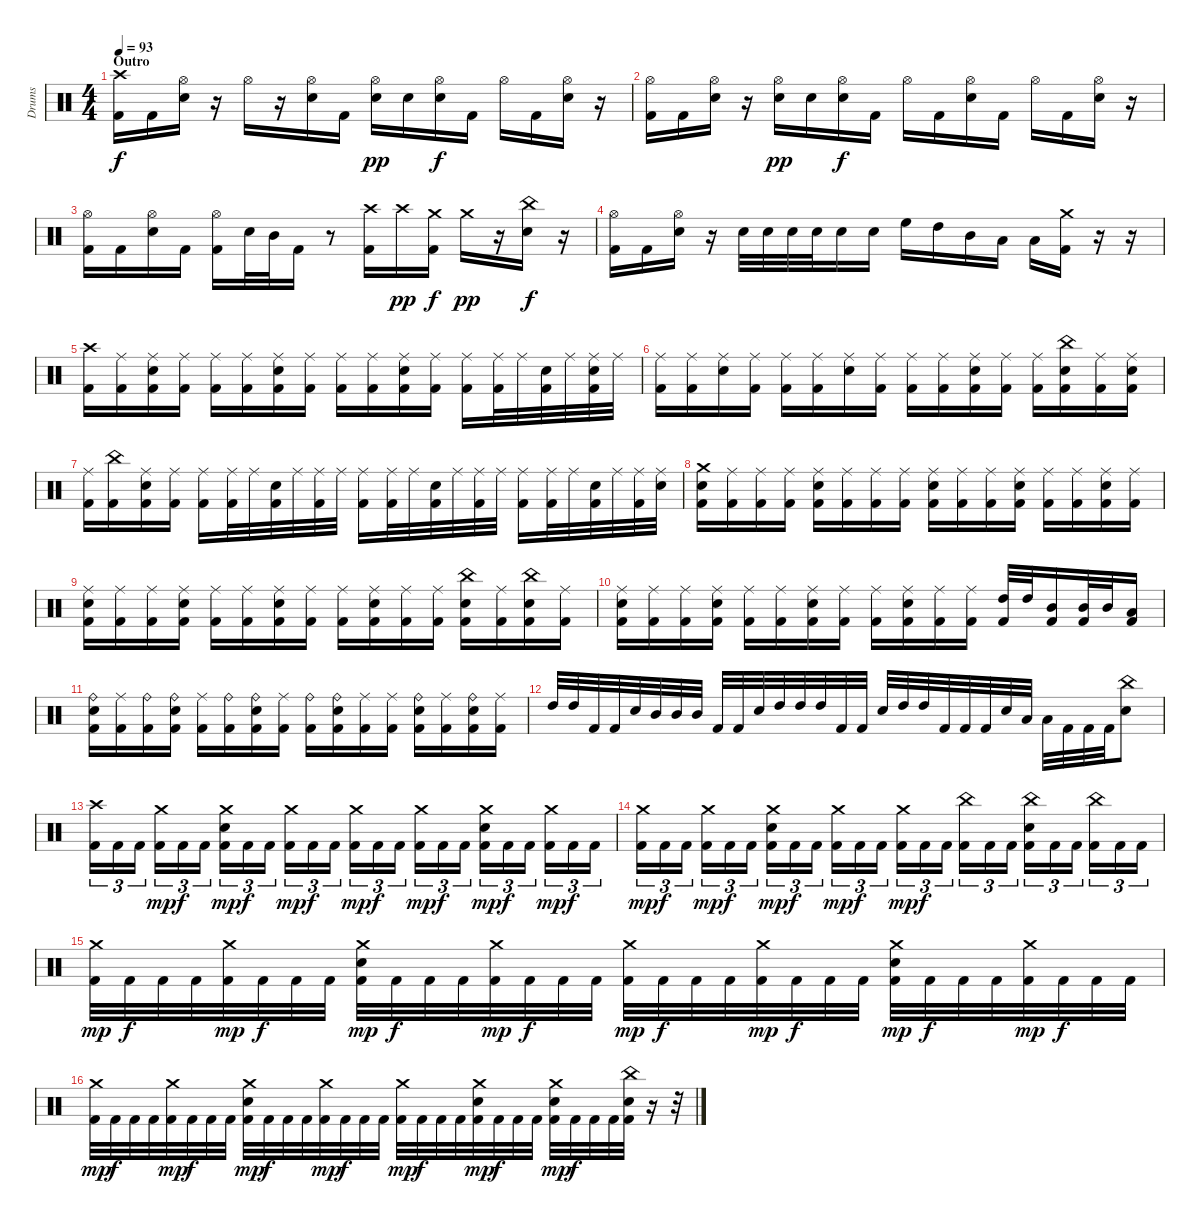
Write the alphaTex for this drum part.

\track ("Drums" "Drums") {instrument percussion}
\staff {score}
\articulation defaults
\ts (4 4)
\section ("" "Outro")
\tempo 93
\clef neutral
\ks c
("Kick (hit) 2" "Crash high (hit)").16{dy f} "Kick (hit) 2".16 ("Snare (hit) 2" "Hi-Hat (open)").16 r.16 "Hi-Hat (open)".16 r.16 ("Snare (hit) 2" "Hi-Hat (open)").16 "Kick (hit) 2".16 ("Hi-Hat (open)" "Snare (hit) 2").16{dy pp} "Snare (hit) 2".16 ("Hi-Hat (open)" "Snare (hit) 2").16{dy f} "Kick (hit) 2".16 "Hi-Hat (open)".16 "Kick (hit) 2".16 ("Hi-Hat (open)" "Snare (hit) 2").16 r.16 |
("Kick (hit) 2" "Hi-Hat (open)").16 "Kick (hit) 2".16 ("Snare (hit) 2" "Hi-Hat (open)").16 r.16 ("Hi-Hat (open)" "Snare (hit) 2").16{dy pp} "Snare (hit) 2".16 ("Snare (hit) 2" "Hi-Hat (open)").16{dy f} "Kick (hit) 2".16 "Hi-Hat (open)".16 "Kick (hit) 2".16 ("Hi-Hat (open)" "Snare (hit) 2").16 "Kick (hit) 2".16 "Hi-Hat (open)".16 "Kick (hit) 2".16 ("Hi-Hat (open)" "Snare (hit) 2").16 r.16 |
("Kick (hit) 2" "Hi-Hat (open)").16 "Kick (hit) 2".16 ("Snare (hit) 2" "Hi-Hat (open)").16 "Kick (hit) 2".16 ("Kick (hit) 2" "Hi-Hat (open)").16 "Snare (hit) 2".32 "Mid Tom (hit)".32 "Kick (hit) 2".16 r.8 ("Kick (hit) 2" "Crash high (hit)").16 "Crash high (hit)".16{dy pp} ("Kick (hit) 2" "Crash medium (hit)").16{dy f} "Crash medium (hit)".16{dy pp} r.16 ("China (hit)" "Snare (hit) 2").16{dy f} r.16 |
("Kick (hit) 2" "Hi-Hat (open)").16 "Kick (hit) 2".16 ("Snare (hit) 2" "Hi-Hat (open)").16 r.16 "Snare (hit) 2".32 "Snare (hit) 2".32 "Snare (hit) 2".32 "Snare (hit) 2".32 "Snare (hit) 2".16 "Snare (hit) 2".16 "High Floor Tom (hit)".16 "High Tom (hit)".16 "Mid Tom (hit)".16 "Low Tom (hit)".16 "Low Tom (hit)".16 ("Kick (hit) 2" "Crash medium (hit)").16 r.16 r.16 |
("Kick (hit) 2" "Crash high (hit)").16 ("Kick (hit) 2" "Ride (middle)").16 ("Kick (hit) 2" "Ride (middle)" "Snare (hit) 2").16 ("Kick (hit) 2" "Ride (middle)").16 ("Kick (hit) 2" "Ride (middle)").16 ("Kick (hit) 2" "Ride (middle)").16 ("Kick (hit) 2" "Ride (middle)" "Snare (hit) 2").16 ("Kick (hit) 2" "Ride (middle)").16 ("Kick (hit) 2" "Ride (middle)").16 ("Kick (hit) 2" "Ride (middle)").16 ("Kick (hit) 2" "Ride (middle)" "Snare (hit) 2").16 ("Kick (hit) 2" "Ride (middle)").16 ("Kick (hit) 2" "Ride (middle)").16 ("Kick (hit) 2" "Ride (middle)").32 "Ride (middle)".32 ("Kick (hit) 2" "Snare (hit) 2").32 "Ride (middle)".32 ("Ride (middle)" "Snare (hit) 2" "Kick (hit) 2").32 "Ride (middle)".32 |
("Kick (hit) 2" "Ride (middle)").16 ("Kick (hit) 2" "Ride (middle)").16 ("Snare (hit) 2" "Ride (middle)").16 ("Kick (hit) 2" "Ride (middle)").16 ("Kick (hit) 2" "Ride (middle)").16 ("Kick (hit) 2" "Ride (middle)").16 ("Snare (hit) 2" "Ride (middle)").16 ("Kick (hit) 2" "Ride (middle)").16 ("Kick (hit) 2" "Ride (middle)").16 ("Kick (hit) 2" "Ride (middle)").16 ("Kick (hit) 2" "Ride (middle)" "Snare (hit) 2").16 ("Kick (hit) 2" "Ride (middle)").16 ("Kick (hit) 2" "Ride (middle)").16 ("Kick (hit) 2" "China (hit)" "Snare (hit) 2").16 ("Kick (hit) 2" "Ride (middle)").16 ("Snare (hit) 2" "Ride (middle)" "Kick (hit) 2").16 |
("Kick (hit) 2" "Ride (middle)").16 ("Kick (hit) 2" "China (hit)").16 ("Snare (hit) 2" "Ride (middle)" "Kick (hit) 2").16 ("Kick (hit) 2" "Ride (middle)").16 ("Kick (hit) 2" "Ride (middle)").16 ("Kick (hit) 2" "Ride (middle)").32 "Ride (middle)".32 ("Kick (hit) 2" "Snare (hit) 2").32 "Ride (middle)".32 ("Ride (middle)" "Kick (hit) 2").32 "Ride (middle)".32 ("Kick (hit) 2" "Ride (middle)").16 ("Kick (hit) 2" "Ride (middle)").32 "Ride (middle)".32 ("Kick (hit) 2" "Snare (hit) 2").32 "Ride (middle)".32 ("Ride (middle)" "Kick (hit) 2").32 "Ride (middle)".32 ("Kick (hit) 2" "Ride (middle)").16 ("Kick (hit) 2" "Ride (middle)").32 "Ride (middle)".32 ("Kick (hit) 2" "Snare (hit) 2").32 "Ride (middle)".32 ("Ride (middle)" "Kick (hit) 2").32 ("Ride (middle)" "Snare (hit) 2").32 |
("Snare (hit) 2" "Crash medium (hit)" "Kick (hit) 2").16 ("Kick (hit) 2" "Ride (middle)").16 ("Kick (hit) 2" "Ride (middle)").16 ("Ride (middle)" "Kick (hit) 2").16 ("Kick (hit) 2" "Ride (middle)" "Snare (hit) 2").16 ("Kick (hit) 2" "Ride (middle)").16 ("Ride (middle)" "Kick (hit) 2").16 ("Kick (hit) 2" "Ride (middle)").16 ("Kick (hit) 2" "Ride (middle)" "Snare (hit) 2").16 ("Ride (middle)" "Kick (hit) 2").16 ("Kick (hit) 2" "Ride (middle)").16 ("Kick (hit) 2" "Ride (middle)" "Snare (hit) 2").16 ("Ride (middle)" "Kick (hit) 2").16 ("Kick (hit) 2" "Ride (middle)").16 ("Snare (hit) 2" "Ride (middle)" "Kick (hit) 2").16 ("Ride (middle)" "Kick (hit) 2").16 |
("Snare (hit) 2" "Ride (middle)" "Kick (hit) 2").16 ("Kick (hit) 2" "Ride (middle)").16 ("Ride (middle)" "Kick (hit) 2").16 ("Ride (middle)" "Kick (hit) 2" "Snare (hit) 2").16 ("Kick (hit) 2" "Ride (middle)").16 ("Ride (middle)" "Kick (hit) 2").16 ("Ride (middle)" "Kick (hit) 2" "Snare (hit) 2").16 ("Kick (hit) 2" "Ride (middle)").16 ("Ride (middle)" "Kick (hit) 2").16 ("Ride (middle)" "Kick (hit) 2" "Snare (hit) 2").16 ("Kick (hit) 2" "Ride (middle)").16 ("Ride (middle)" "Kick (hit) 2").16 ("China (hit)" "Kick (hit) 2" "Snare (hit) 2").16 ("Kick (hit) 2" "Ride (middle)").16 ("Snare (hit) 2" "China (hit)" "Kick (hit) 2").16 ("Ride (middle)" "Kick (hit) 2").16 |
("Snare (hit) 2" "Ride (middle)" "Kick (hit) 2").16 ("Kick (hit) 2" "Ride (middle)").16 ("Ride (middle)" "Kick (hit) 2").16 ("Ride (middle)" "Kick (hit) 2" "Snare (hit) 2").16 ("Kick (hit) 2" "Ride (middle)").16 ("Ride (middle)" "Kick (hit) 2").16 ("Ride (middle)" "Kick (hit) 2" "Snare (hit) 2").16 ("Kick (hit) 2" "Ride (middle)").16 ("Ride (middle)" "Kick (hit) 2").16 ("Ride (middle)" "Kick (hit) 2" "Snare (hit) 2").16 ("Kick (hit) 2" "Ride (middle)").16 ("Ride (middle)" "Kick (hit) 2").16 ("High Tom (hit)" "Kick (hit) 2").32 "High Tom (hit)".32 ("Kick (hit) 2" "Mid Tom (hit)").16 ("Mid Tom (hit)" "Kick (hit) 2").32 "Mid Tom (hit)".32 ("Kick (hit) 2" "Low Tom (hit)").16 |
("Snare (hit) 2" "Ride (bell)" "Kick (hit) 2").16 ("Kick (hit) 2" "Ride (middle)").16 ("Ride (bell)" "Kick (hit) 2").16 ("Ride (bell)" "Kick (hit) 2" "Snare (hit) 2").16 ("Kick (hit) 2" "Ride (middle)").16 ("Ride (bell)" "Kick (hit) 2").16 ("Ride (bell)" "Kick (hit) 2" "Snare (hit) 2").16 ("Kick (hit) 2" "Ride (middle)").16 ("Ride (bell)" "Kick (hit) 2").16 ("Ride (bell)" "Kick (hit) 2" "Snare (hit) 2").16 ("Kick (hit) 2" "Ride (middle)").16 ("Ride (middle)" "Kick (hit) 2").16 ("Ride (bell)" "Kick (hit) 2" "Snare (hit) 2").16 ("Kick (hit) 2" "Ride (middle)").16 ("Snare (hit) 2" "Ride (bell)" "Kick (hit) 2").16 ("Ride (middle)" "Kick (hit) 2").16 |
"High Tom (hit)".32 "High Tom (hit)".32 "Kick (hit) 2".32 "Kick (hit) 2".32 "Snare (hit) 2".32 "Mid Tom (hit)".32 "Mid Tom (hit)".32 "Mid Tom (hit)".32 "Kick (hit) 2".32 "Kick (hit) 2".32 "Snare (hit) 2".32 "High Tom (hit)".32 "High Tom (hit)".32 "High Tom (hit)".32 "Kick (hit) 2".32 "Kick (hit) 2".32 "Snare (hit) 2".32 "High Tom (hit)".32 "High Tom (hit)".32 "Kick (hit) 2".32 "Kick (hit) 2".32 "Kick (hit) 2".32 "Snare (hit) 2".32 "Low Tom (hit)".32 "Low Tom (hit)".32 "Kick (hit) 2".32 "Kick (hit) 2".32 "Kick (hit) 2".32 ("Snare (hit) 2" "China (hit)").8 |
("Kick (hit) 2" "Crash high (hit)").16{tu (3 2)} "Kick (hit) 2".16{tu (3 2)} "Kick (hit) 2".16{tu (3 2) beam splitsecondary} ("Kick (hit) 2" "Crash medium (hit)").16{tu (3 2) dy mp} "Kick (hit) 2".16{tu (3 2) dy f} "Kick (hit) 2".16{tu (3 2)} ("Kick (hit) 2" "Crash medium (hit)" "Snare (hit) 2").16{tu (3 2) dy mp} "Kick (hit) 2".16{tu (3 2) dy f} "Kick (hit) 2".16{tu (3 2) beam splitsecondary} ("Kick (hit) 2" "Crash medium (hit)").16{tu (3 2) dy mp} "Kick (hit) 2".16{tu (3 2) dy f} "Kick (hit) 2".16{tu (3 2)} ("Kick (hit) 2" "Crash medium (hit)").16{tu (3 2) dy mp} "Kick (hit) 2".16{tu (3 2) dy f} "Kick (hit) 2".16{tu (3 2) beam splitsecondary} ("Kick (hit) 2" "Crash medium (hit)").16{tu (3 2) dy mp} "Kick (hit) 2".16{tu (3 2) dy f} "Kick (hit) 2".16{tu (3 2)} ("Kick (hit) 2" "Crash medium (hit)" "Snare (hit) 2").16{tu (3 2) dy mp} "Kick (hit) 2".16{tu (3 2) dy f} "Kick (hit) 2".16{tu (3 2) beam splitsecondary} ("Kick (hit) 2" "Crash medium (hit)").16{tu (3 2) dy mp} "Kick (hit) 2".16{tu (3 2) dy f} "Kick (hit) 2".16{tu (3 2)} |
("Kick (hit) 2" "Crash medium (hit)").16{tu (3 2) dy mp} "Kick (hit) 2".16{tu (3 2) dy f} "Kick (hit) 2".16{tu (3 2) beam splitsecondary} ("Kick (hit) 2" "Crash medium (hit)").16{tu (3 2) dy mp} "Kick (hit) 2".16{tu (3 2) dy f} "Kick (hit) 2".16{tu (3 2)} ("Kick (hit) 2" "Crash medium (hit)" "Snare (hit) 2").16{tu (3 2) dy mp} "Kick (hit) 2".16{tu (3 2) dy f} "Kick (hit) 2".16{tu (3 2) beam splitsecondary} ("Kick (hit) 2" "Crash medium (hit)").16{tu (3 2) dy mp} "Kick (hit) 2".16{tu (3 2) dy f} "Kick (hit) 2".16{tu (3 2)} ("Kick (hit) 2" "Crash medium (hit)").16{tu (3 2) dy mp} "Kick (hit) 2".16{tu (3 2) dy f} "Kick (hit) 2".16{tu (3 2) beam splitsecondary} ("Kick (hit) 2" "China (hit)").16{tu (3 2)} "Kick (hit) 2".16{tu (3 2)} "Kick (hit) 2".16{tu (3 2)} ("Kick (hit) 2" "Snare (hit) 2" "China (hit)").16{tu (3 2)} "Kick (hit) 2".16{tu (3 2)} "Kick (hit) 2".16{tu (3 2) beam splitsecondary} ("Kick (hit) 2" "China (hit)").16{tu (3 2)} "Kick (hit) 2".16{tu (3 2)} "Kick (hit) 2".16{tu (3 2)} |
("Kick (hit) 2" "Crash medium (hit)").32{dy mp} "Kick (hit) 2".32{dy f} "Kick (hit) 2".32 "Kick (hit) 2".32 ("Kick (hit) 2" "Crash medium (hit)").32{dy mp} "Kick (hit) 2".32{dy f} "Kick (hit) 2".32 "Kick (hit) 2".32 ("Kick (hit) 2" "Crash medium (hit)" "Snare (hit) 2").32{dy mp} "Kick (hit) 2".32{dy f} "Kick (hit) 2".32 "Kick (hit) 2".32 ("Kick (hit) 2" "Crash medium (hit)").32{dy mp} "Kick (hit) 2".32{dy f} "Kick (hit) 2".32 "Kick (hit) 2".32 ("Kick (hit) 2" "Crash medium (hit)").32{dy mp} "Kick (hit) 2".32{dy f} "Kick (hit) 2".32 "Kick (hit) 2".32 ("Kick (hit) 2" "Crash medium (hit)").32{dy mp} "Kick (hit) 2".32{dy f} "Kick (hit) 2".32 "Kick (hit) 2".32 ("Kick (hit) 2" "Crash medium (hit)" "Snare (hit) 2").32{dy mp} "Kick (hit) 2".32{dy f} "Kick (hit) 2".32 "Kick (hit) 2".32 ("Kick (hit) 2" "Crash medium (hit)").32{dy mp} "Kick (hit) 2".32{dy f} "Kick (hit) 2".32 "Kick (hit) 2".32 |
("Kick (hit) 2" "Crash medium (hit)").32{dy mp} "Kick (hit) 2".32{dy f} "Kick (hit) 2".32 "Kick (hit) 2".32 ("Kick (hit) 2" "Crash medium (hit)").32{dy mp} "Kick (hit) 2".32{dy f} "Kick (hit) 2".32 "Kick (hit) 2".32 ("Kick (hit) 2" "Crash medium (hit)" "Snare (hit) 2").32{dy mp} "Kick (hit) 2".32{dy f} "Kick (hit) 2".32 "Kick (hit) 2".32 ("Kick (hit) 2" "Crash medium (hit)").32{dy mp} "Kick (hit) 2".32{dy f} "Kick (hit) 2".32 "Kick (hit) 2".32 ("Kick (hit) 2" "Crash medium (hit)").32{dy mp} "Kick (hit) 2".32{dy f} "Kick (hit) 2".32 "Kick (hit) 2".32 ("Kick (hit) 2" "Crash medium (hit)" "Snare (hit) 2").32{dy mp} "Kick (hit) 2".32{dy f} "Kick (hit) 2".32 "Kick (hit) 2".32 ("Kick (hit) 2" "Crash medium (hit)" "Snare (hit) 2").32{dy mp} "Kick (hit) 2".32{dy f} "Kick (hit) 2".32 "Kick (hit) 2".32 ("Kick (hit) 2" "China (hit)" "Snare (hit) 2").32 r.16 r.32
